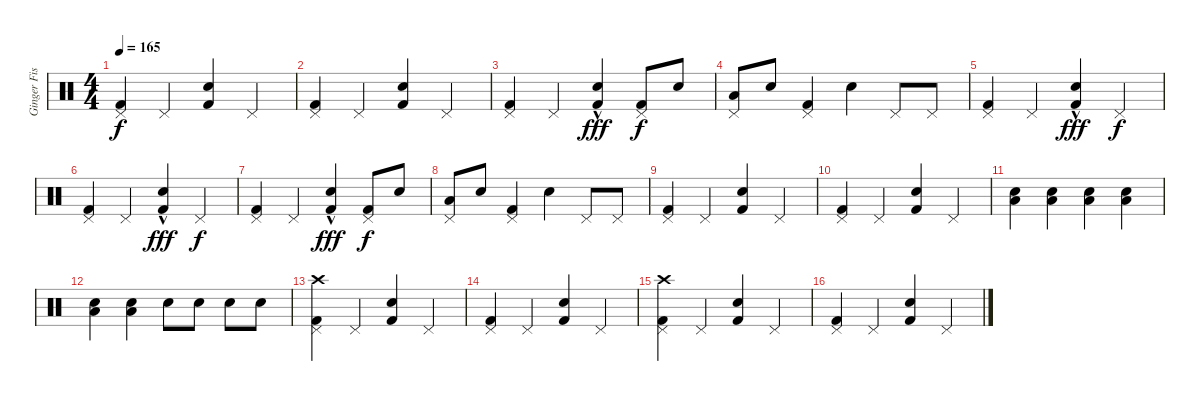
\track ("Ginger Fish" "Ginger Fis") {instrument percussion}
\staff {score}
\articulation defaults
\ts (4 4)
\tempo 165
\clef neutral
\ks c
("Pedal Hi-Hat (hit)" "Kick (hit) 2").4{dy f} "Pedal Hi-Hat (hit)".4 ("Electric Snare (hit)" "Kick (hit) 2").4 "Pedal Hi-Hat (hit)".4 |
("Pedal Hi-Hat (hit)" "Kick (hit) 2").4 "Pedal Hi-Hat (hit)".4 ("Electric Snare (hit)" "Kick (hit) 2").4 "Pedal Hi-Hat (hit)".4 |
("Pedal Hi-Hat (hit)" "Kick (hit) 2").4 "Pedal Hi-Hat (hit)".4 ("Electric Snare (hit)"{hac} "Kick (hit) 2").4{dy fff} ("Pedal Hi-Hat (hit)" "Kick (hit) 2").8{dy f} "Electric Snare (hit)".8 |
("Pedal Hi-Hat (hit)" "Low Tom (hit)").8 "Electric Snare (hit)".8 ("Pedal Hi-Hat (hit)" "Kick (hit) 2").4 "Electric Snare (hit)".4 "Pedal Hi-Hat (hit)".8 "Pedal Hi-Hat (hit)".8 |
("Pedal Hi-Hat (hit)" "Kick (hit) 2").4 "Pedal Hi-Hat (hit)".4 ("Electric Snare (hit)"{hac} "Kick (hit) 2").4{dy fff} "Pedal Hi-Hat (hit)".4{dy f} |
("Pedal Hi-Hat (hit)" "Kick (hit) 2").4 "Pedal Hi-Hat (hit)".4 ("Electric Snare (hit)"{hac} "Kick (hit) 2").4{dy fff} "Pedal Hi-Hat (hit)".4{dy f} |
("Pedal Hi-Hat (hit)" "Kick (hit) 2").4 "Pedal Hi-Hat (hit)".4 ("Electric Snare (hit)"{hac} "Kick (hit) 2").4{dy fff} ("Pedal Hi-Hat (hit)" "Kick (hit) 2").8{dy f} "Electric Snare (hit)".8 |
("Pedal Hi-Hat (hit)" "Low Tom (hit)").8 "Electric Snare (hit)".8 ("Pedal Hi-Hat (hit)" "Kick (hit) 2").4 "Electric Snare (hit)".4 "Pedal Hi-Hat (hit)".8 "Pedal Hi-Hat (hit)".8 |
("Pedal Hi-Hat (hit)" "Kick (hit) 2").4 "Pedal Hi-Hat (hit)".4 ("Electric Snare (hit)" "Kick (hit) 2").4 "Pedal Hi-Hat (hit)".4 |
("Pedal Hi-Hat (hit)" "Kick (hit) 2").4 "Pedal Hi-Hat (hit)".4 ("Electric Snare (hit)" "Kick (hit) 2").4 "Pedal Hi-Hat (hit)".4 |
("Electric Snare (hit)" "Low Tom (hit)").4 ("Low Tom (hit)" "Electric Snare (hit)").4 ("Electric Snare (hit)" "Low Tom (hit)").4 ("Low Tom (hit)" "Electric Snare (hit)").4 |
("Low Tom (hit)" "Electric Snare (hit)").4 ("Low Tom (hit)" "Electric Snare (hit)").4 "Electric Snare (hit)".8 "Electric Snare (hit)".8 "Electric Snare (hit)".8 "Electric Snare (hit)".8 |
("Crash high (hit)" "Pedal Hi-Hat (hit)" "Kick (hit) 2").4 "Pedal Hi-Hat (hit)".4 ("Electric Snare (hit)" "Kick (hit) 2").4 "Pedal Hi-Hat (hit)".4 |
("Pedal Hi-Hat (hit)" "Kick (hit) 2").4 "Pedal Hi-Hat (hit)".4 ("Electric Snare (hit)" "Kick (hit) 2").4 "Pedal Hi-Hat (hit)".4 |
("Crash high (hit)" "Pedal Hi-Hat (hit)" "Kick (hit) 2").4 "Pedal Hi-Hat (hit)".4 ("Electric Snare (hit)" "Kick (hit) 2").4 "Pedal Hi-Hat (hit)".4 |
("Pedal Hi-Hat (hit)" "Kick (hit) 2").4 "Pedal Hi-Hat (hit)".4 ("Electric Snare (hit)" "Kick (hit) 2").4 "Pedal Hi-Hat (hit)".4
